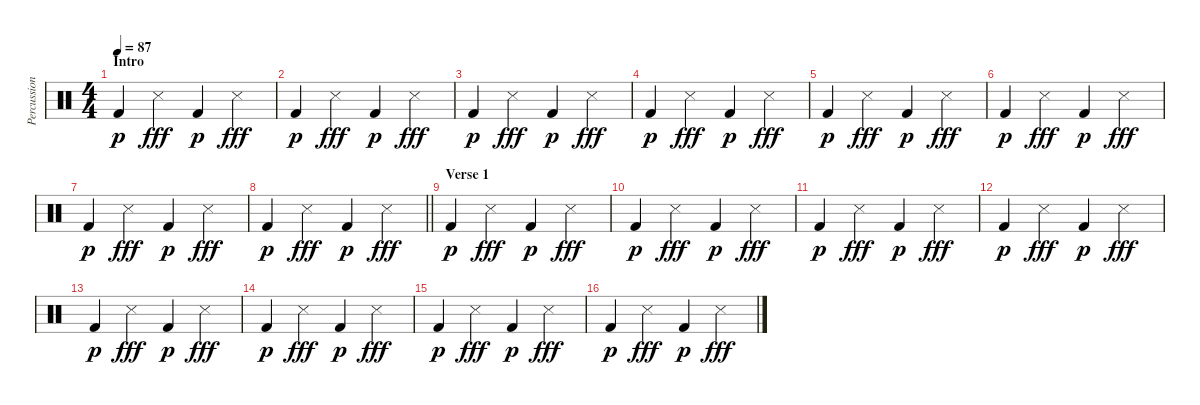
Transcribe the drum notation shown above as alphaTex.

\track ("Percussion" "Percussion") {instrument percussion}
\staff {score}
\articulation defaults
\ts (4 4)
\section ("" "Intro")
\tempo 87
\clef neutral
\ks c "Kick (hit) 2".4{dy p volume 16} "Snare (side stick) 3".4{dy fff} "Kick (hit) 2".4{dy p} "Snare (side stick) 3".4{dy fff}
|
"Kick (hit) 2".4{dy p} "Snare (side stick) 3".4{dy fff} "Kick (hit) 2".4{dy p} "Snare (side stick) 3".4{dy fff} |
"Kick (hit) 2".4{dy p} "Snare (side stick) 3".4{dy fff} "Kick (hit) 2".4{dy p} "Snare (side stick) 3".4{dy fff} |
"Kick (hit) 2".4{dy p} "Snare (side stick) 3".4{dy fff} "Kick (hit) 2".4{dy p} "Snare (side stick) 3".4{dy fff} |
"Kick (hit) 2".4{dy p} "Snare (side stick) 3".4{dy fff} "Kick (hit) 2".4{dy p} "Snare (side stick) 3".4{dy fff} |
"Kick (hit) 2".4{dy p} "Snare (side stick) 3".4{dy fff} "Kick (hit) 2".4{dy p} "Snare (side stick) 3".4{dy fff} |
"Kick (hit) 2".4{dy p} "Snare (side stick) 3".4{dy fff} "Kick (hit) 2".4{dy p} "Snare (side stick) 3".4{dy fff} |
\barLineRight lightlight "Kick (hit) 2".4{dy p} "Snare (side stick) 3".4{dy fff} "Kick (hit) 2".4{dy p} "Snare (side stick) 3".4{dy fff}
|
\section ("" "Verse 1")
"Kick (hit) 2".4{dy p} "Snare (side stick) 3".4{dy fff} "Kick (hit) 2".4{dy p} "Snare (side stick) 3".4{dy fff} |
"Kick (hit) 2".4{dy p} "Snare (side stick) 3".4{dy fff} "Kick (hit) 2".4{dy p} "Snare (side stick) 3".4{dy fff} |
"Kick (hit) 2".4{dy p} "Snare (side stick) 3".4{dy fff} "Kick (hit) 2".4{dy p} "Snare (side stick) 3".4{dy fff} |
"Kick (hit) 2".4{dy p} "Snare (side stick) 3".4{dy fff} "Kick (hit) 2".4{dy p} "Snare (side stick) 3".4{dy fff} |
"Kick (hit) 2".4{dy p} "Snare (side stick) 3".4{dy fff} "Kick (hit) 2".4{dy p} "Snare (side stick) 3".4{dy fff} |
"Kick (hit) 2".4{dy p} "Snare (side stick) 3".4{dy fff} "Kick (hit) 2".4{dy p} "Snare (side stick) 3".4{dy fff} |
"Kick (hit) 2".4{dy p} "Snare (side stick) 3".4{dy fff} "Kick (hit) 2".4{dy p} "Snare (side stick) 3".4{dy fff} |
"Kick (hit) 2".4{dy p} "Snare (side stick) 3".4{dy fff} "Kick (hit) 2".4{dy p} "Snare (side stick) 3".4{dy fff}
